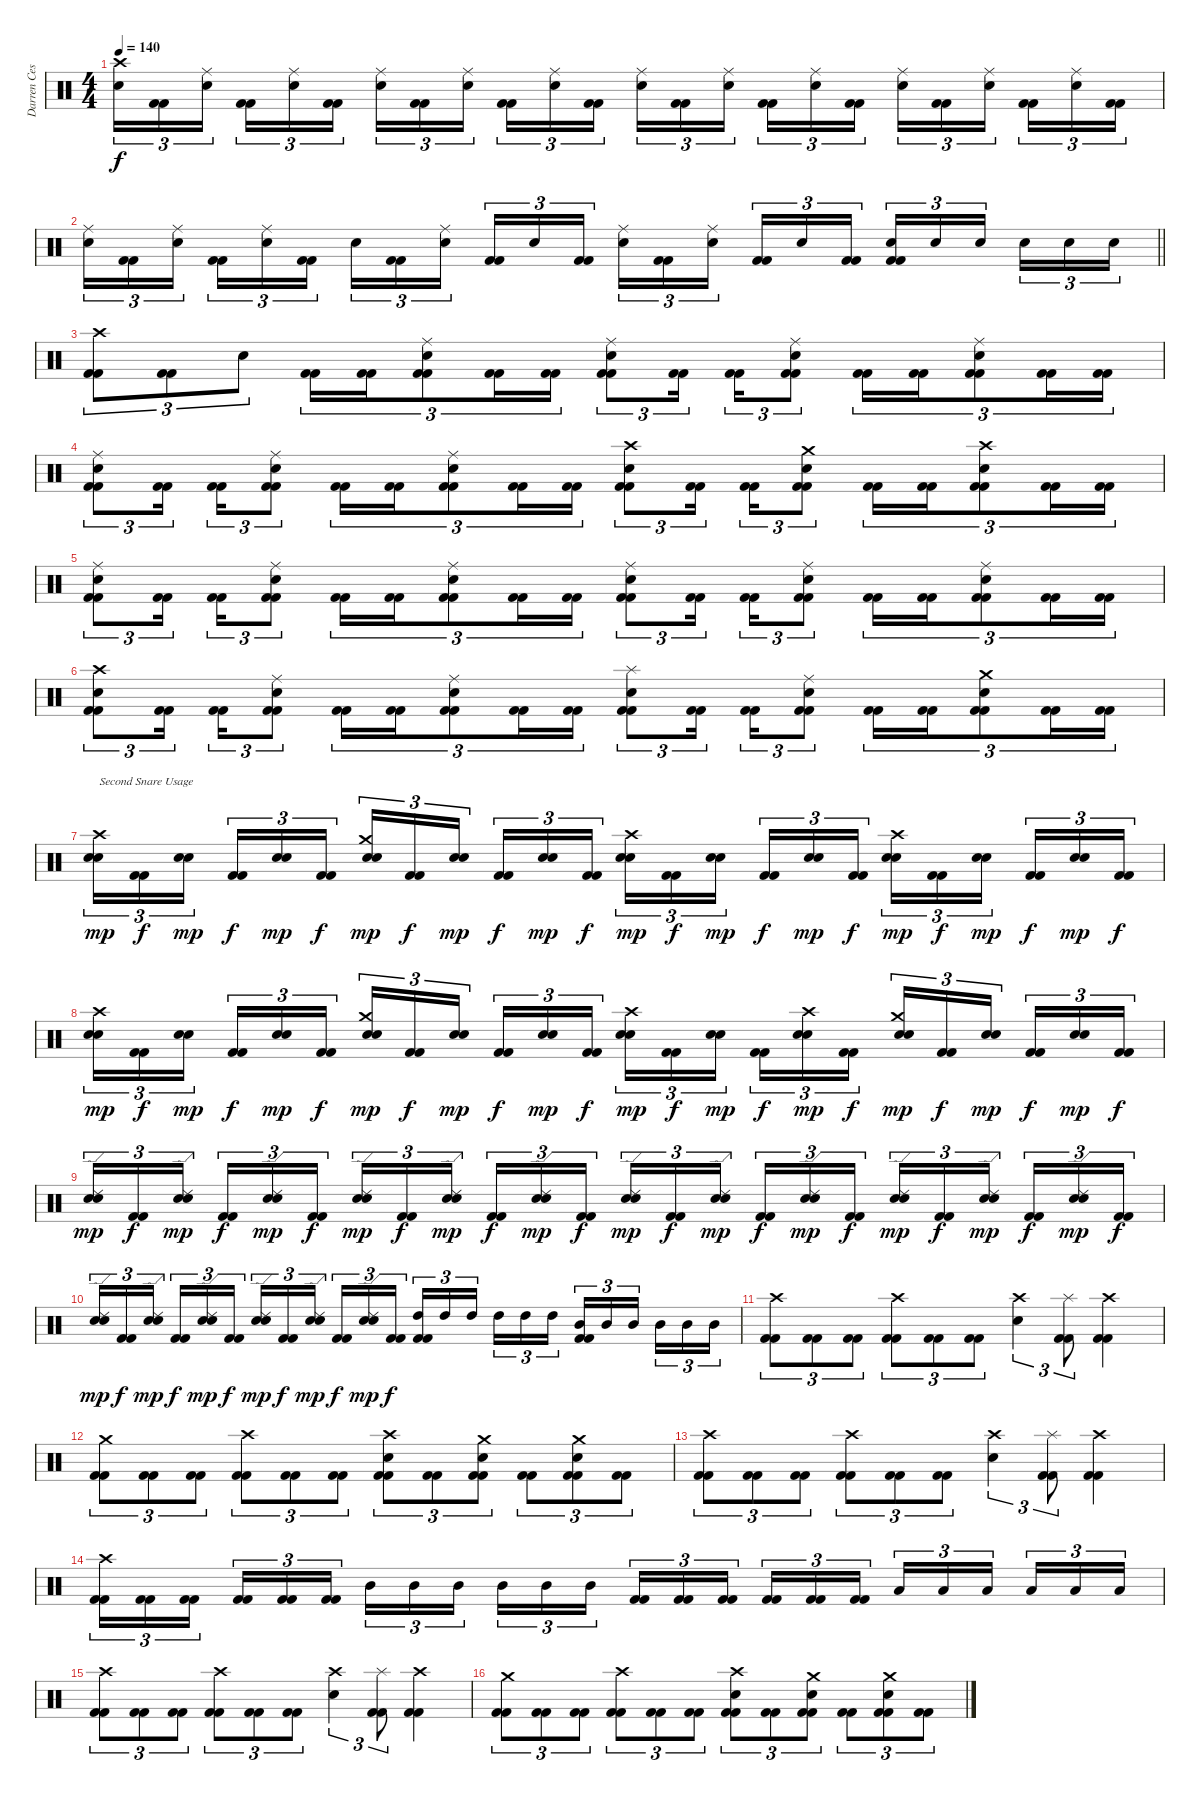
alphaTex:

\track ("Darren Cesca" "Darren Ces") {instrument percussion}
\staff {score}
\articulation defaults
\ts (4 4)
\tempo 140
\clef neutral
\ks c
("Crash high (hit)" "Electric Snare (hit)").16{tu (3 2) dy f} ("Kick (hit) 2" "Kick (hit) 2").16{tu (3 2)} ("Ride (middle)" "Electric Snare (hit)").16{tu (3 2) beam splitsecondary} ("Kick (hit) 2" "Kick (hit) 2").16{tu (3 2)} ("Ride (middle)" "Electric Snare (hit)").16{tu (3 2)} ("Kick (hit) 2" "Kick (hit) 2").16{tu (3 2)} ("Ride (middle)" "Electric Snare (hit)").16{tu (3 2)} ("Kick (hit) 2" "Kick (hit) 2").16{tu (3 2)} ("Ride (middle)" "Electric Snare (hit)").16{tu (3 2) beam splitsecondary} ("Kick (hit) 2" "Kick (hit) 2").16{tu (3 2)} ("Ride (middle)" "Electric Snare (hit)").16{tu (3 2)} ("Kick (hit) 2" "Kick (hit) 2").16{tu (3 2)} ("Ride (middle)" "Electric Snare (hit)").16{tu (3 2)} ("Kick (hit) 2" "Kick (hit) 2").16{tu (3 2)} ("Ride (middle)" "Electric Snare (hit)").16{tu (3 2) beam splitsecondary} ("Kick (hit) 2" "Kick (hit) 2").16{tu (3 2)} ("Ride (middle)" "Electric Snare (hit)").16{tu (3 2)} ("Kick (hit) 2" "Kick (hit) 2").16{tu (3 2)} ("Ride (middle)" "Electric Snare (hit)").16{tu (3 2)} ("Kick (hit) 2" "Kick (hit) 2").16{tu (3 2)} ("Ride (middle)" "Electric Snare (hit)").16{tu (3 2) beam splitsecondary} ("Kick (hit) 2" "Kick (hit) 2").16{tu (3 2)} ("Ride (middle)" "Electric Snare (hit)").16{tu (3 2)} ("Kick (hit) 2" "Kick (hit) 2").16{tu (3 2)} |
\barLineRight lightlight
("Ride (middle)" "Electric Snare (hit)").16{tu (3 2)} ("Kick (hit) 2" "Kick (hit) 2").16{tu (3 2)} ("Ride (middle)" "Electric Snare (hit)").16{tu (3 2) beam splitsecondary} ("Kick (hit) 2" "Kick (hit) 2").16{tu (3 2)} ("Ride (middle)" "Electric Snare (hit)").16{tu (3 2)} ("Kick (hit) 2" "Kick (hit) 2").16{tu (3 2)} "Electric Snare (hit)".16{tu (3 2)} ("Kick (hit) 2" "Kick (hit) 2").16{tu (3 2)} ("Ride (middle)" "Electric Snare (hit)").16{tu (3 2) beam splitsecondary} ("Kick (hit) 2" "Kick (hit) 2").16{tu (3 2)} "Electric Snare (hit)".16{tu (3 2)} ("Kick (hit) 2" "Kick (hit) 2").16{tu (3 2)} ("Ride (middle)" "Electric Snare (hit)").16{tu (3 2)} ("Kick (hit) 2" "Kick (hit) 2").16{tu (3 2)} ("Ride (middle)" "Electric Snare (hit)").16{tu (3 2) beam splitsecondary} ("Kick (hit) 2" "Kick (hit) 2").16{tu (3 2)} "Electric Snare (hit)".16{tu (3 2)} ("Kick (hit) 2" "Kick (hit) 2").16{tu (3 2)} ("Electric Snare (hit)" "Kick (hit) 2" "Kick (hit) 2").16{tu (3 2)} "Electric Snare (hit)".16{tu (3 2)} "Electric Snare (hit)".16{tu (3 2) beam splitsecondary} "Electric Snare (hit)".16{tu (3 2)} "Electric Snare (hit)".16{tu (3 2)} "Electric Snare (hit)".16{tu (3 2)} |
("Crash high (hit)" "Kick (hit) 2" "Kick (hit) 2").8{tu (3 2)} ("Kick (hit) 2" "Kick (hit) 2").8{tu (3 2)} "Electric Snare (hit)".8{tu (3 2)} ("Kick (hit) 2" "Kick (hit) 2").16{tu (3 2)} ("Kick (hit) 2" "Kick (hit) 2").16{tu (3 2)} ("Ride (middle)" "Electric Snare (hit)" "Kick (hit) 2" "Kick (hit) 2").8{tu (3 2)} ("Kick (hit) 2" "Kick (hit) 2").16{tu (3 2)} ("Kick (hit) 2" "Kick (hit) 2").16{tu (3 2)} ("Ride (middle)" "Electric Snare (hit)" "Kick (hit) 2" "Kick (hit) 2").8{tu (3 2)} ("Kick (hit) 2" "Kick (hit) 2").16{tu (3 2) beam splitsecondary} ("Kick (hit) 2" "Kick (hit) 2").16{tu (3 2)} ("Ride (middle)" "Electric Snare (hit)" "Kick (hit) 2" "Kick (hit) 2").8{tu (3 2)} ("Kick (hit) 2" "Kick (hit) 2").16{tu (3 2)} ("Kick (hit) 2" "Kick (hit) 2").16{tu (3 2)} ("Ride (middle)" "Electric Snare (hit)" "Kick (hit) 2" "Kick (hit) 2").8{tu (3 2)} ("Kick (hit) 2" "Kick (hit) 2").16{tu (3 2)} ("Kick (hit) 2" "Kick (hit) 2").16{tu (3 2)} |
("Ride (middle)" "Electric Snare (hit)" "Kick (hit) 2" "Kick (hit) 2").8{tu (3 2)} ("Kick (hit) 2" "Kick (hit) 2").16{tu (3 2) beam splitsecondary} ("Kick (hit) 2" "Kick (hit) 2").16{tu (3 2)} ("Ride (middle)" "Electric Snare (hit)" "Kick (hit) 2" "Kick (hit) 2").8{tu (3 2)} ("Kick (hit) 2" "Kick (hit) 2").16{tu (3 2)} ("Kick (hit) 2" "Kick (hit) 2").16{tu (3 2)} ("Ride (middle)" "Electric Snare (hit)" "Kick (hit) 2" "Kick (hit) 2").8{tu (3 2)} ("Kick (hit) 2" "Kick (hit) 2").16{tu (3 2)} ("Kick (hit) 2" "Kick (hit) 2").16{tu (3 2)} ("Crash high (hit)" "Electric Snare (hit)" "Kick (hit) 2" "Kick (hit) 2").8{tu (3 2)} ("Kick (hit) 2" "Kick (hit) 2").16{tu (3 2) beam splitsecondary} ("Kick (hit) 2" "Kick (hit) 2").16{tu (3 2)} ("Crash medium (hit)" "Electric Snare (hit)" "Kick (hit) 2" "Kick (hit) 2").8{tu (3 2)} ("Kick (hit) 2" "Kick (hit) 2").16{tu (3 2)} ("Kick (hit) 2" "Kick (hit) 2").16{tu (3 2)} ("Crash high (hit)" "Electric Snare (hit)" "Kick (hit) 2" "Kick (hit) 2").8{tu (3 2)} ("Kick (hit) 2" "Kick (hit) 2").16{tu (3 2)} ("Kick (hit) 2" "Kick (hit) 2").16{tu (3 2)} |
("Ride (middle)" "Electric Snare (hit)" "Kick (hit) 2" "Kick (hit) 2").8{tu (3 2)} ("Kick (hit) 2" "Kick (hit) 2").16{tu (3 2) beam splitsecondary} ("Kick (hit) 2" "Kick (hit) 2").16{tu (3 2)} ("Ride (middle)" "Electric Snare (hit)" "Kick (hit) 2" "Kick (hit) 2").8{tu (3 2)} ("Kick (hit) 2" "Kick (hit) 2").16{tu (3 2)} ("Kick (hit) 2" "Kick (hit) 2").16{tu (3 2)} ("Ride (middle)" "Electric Snare (hit)" "Kick (hit) 2" "Kick (hit) 2").8{tu (3 2)} ("Kick (hit) 2" "Kick (hit) 2").16{tu (3 2)} ("Kick (hit) 2" "Kick (hit) 2").16{tu (3 2)} ("Ride (middle)" "Electric Snare (hit)" "Kick (hit) 2" "Kick (hit) 2").8{tu (3 2)} ("Kick (hit) 2" "Kick (hit) 2").16{tu (3 2) beam splitsecondary} ("Kick (hit) 2" "Kick (hit) 2").16{tu (3 2)} ("Ride (middle)" "Electric Snare (hit)" "Kick (hit) 2" "Kick (hit) 2").8{tu (3 2)} ("Kick (hit) 2" "Kick (hit) 2").16{tu (3 2)} ("Kick (hit) 2" "Kick (hit) 2").16{tu (3 2)} ("Ride (middle)" "Electric Snare (hit)" "Kick (hit) 2" "Kick (hit) 2").8{tu (3 2)} ("Kick (hit) 2" "Kick (hit) 2").16{tu (3 2)} ("Kick (hit) 2" "Kick (hit) 2").16{tu (3 2)} |
("Crash high (hit)" "Electric Snare (hit)" "Kick (hit) 2" "Kick (hit) 2").8{tu (3 2)} ("Kick (hit) 2" "Kick (hit) 2").16{tu (3 2) beam splitsecondary} ("Kick (hit) 2" "Kick (hit) 2").16{tu (3 2)} ("Ride (middle)" "Electric Snare (hit)" "Kick (hit) 2" "Kick (hit) 2").8{tu (3 2)} ("Kick (hit) 2" "Kick (hit) 2").16{tu (3 2)} ("Kick (hit) 2" "Kick (hit) 2").16{tu (3 2)} ("Ride (middle)" "Electric Snare (hit)" "Kick (hit) 2" "Kick (hit) 2").8{tu (3 2)} ("Kick (hit) 2" "Kick (hit) 2").16{tu (3 2)} ("Kick (hit) 2" "Kick (hit) 2").16{tu (3 2)} ("Splash (hit)" "Electric Snare (hit)" "Kick (hit) 2" "Kick (hit) 2").8{tu (3 2)} ("Kick (hit) 2" "Kick (hit) 2").16{tu (3 2) beam splitsecondary} ("Kick (hit) 2" "Kick (hit) 2").16{tu (3 2)} ("Ride (middle)" "Electric Snare (hit)" "Kick (hit) 2" "Kick (hit) 2").8{tu (3 2)} ("Kick (hit) 2" "Kick (hit) 2").16{tu (3 2)} ("Kick (hit) 2" "Kick (hit) 2").16{tu (3 2)} ("Crash medium (hit)" "Electric Snare (hit)" "Kick (hit) 2" "Kick (hit) 2").8{tu (3 2)} ("Kick (hit) 2" "Kick (hit) 2").16{tu (3 2)} ("Kick (hit) 2" "Kick (hit) 2").16{tu (3 2)} |
("Crash high (hit)" "Electric Snare (hit)" "Snare (hit) 2").16{tu (3 2) txt "Second Snare Usage" dy mp} ("Kick (hit) 2" "Kick (hit) 2").16{tu (3 2) dy f} ("Electric Snare (hit)" "Snare (hit) 2").16{tu (3 2) dy mp beam splitsecondary} ("Kick (hit) 2" "Kick (hit) 2").16{tu (3 2) dy f} ("Electric Snare (hit)" "Snare (hit) 2").16{tu (3 2) dy mp} ("Kick (hit) 2" "Kick (hit) 2").16{tu (3 2) dy f} ("Crash medium (hit)" "Electric Snare (hit)" "Snare (hit) 2").16{tu (3 2) dy mp} ("Kick (hit) 2" "Kick (hit) 2").16{tu (3 2) dy f} ("Electric Snare (hit)" "Snare (hit) 2").16{tu (3 2) dy mp beam splitsecondary} ("Kick (hit) 2" "Kick (hit) 2").16{tu (3 2) dy f} ("Electric Snare (hit)" "Snare (hit) 2").16{tu (3 2) dy mp} ("Kick (hit) 2" "Kick (hit) 2").16{tu (3 2) dy f} ("Crash high (hit)" "Electric Snare (hit)" "Snare (hit) 2").16{tu (3 2) dy mp} ("Kick (hit) 2" "Kick (hit) 2").16{tu (3 2) dy f} ("Electric Snare (hit)" "Snare (hit) 2").16{tu (3 2) dy mp beam splitsecondary} ("Kick (hit) 2" "Kick (hit) 2").16{tu (3 2) dy f} ("Electric Snare (hit)" "Snare (hit) 2").16{tu (3 2) dy mp} ("Kick (hit) 2" "Kick (hit) 2").16{tu (3 2) dy f} ("Crash high (hit)" "Electric Snare (hit)" "Snare (hit) 2").16{tu (3 2) dy mp} ("Kick (hit) 2" "Kick (hit) 2").16{tu (3 2) dy f} ("Electric Snare (hit)" "Snare (hit) 2").16{tu (3 2) dy mp beam splitsecondary} ("Kick (hit) 2" "Kick (hit) 2").16{tu (3 2) dy f} ("Electric Snare (hit)" "Snare (hit) 2").16{tu (3 2) dy mp} ("Kick (hit) 2" "Kick (hit) 2").16{tu (3 2) dy f} |
("Crash high (hit)" "Electric Snare (hit)" "Snare (hit) 2").16{tu (3 2) dy mp} ("Kick (hit) 2" "Kick (hit) 2").16{tu (3 2) dy f} ("Electric Snare (hit)" "Snare (hit) 2").16{tu (3 2) dy mp beam splitsecondary} ("Kick (hit) 2" "Kick (hit) 2").16{tu (3 2) dy f} ("Electric Snare (hit)" "Snare (hit) 2").16{tu (3 2) dy mp} ("Kick (hit) 2" "Kick (hit) 2").16{tu (3 2) dy f} ("Crash medium (hit)" "Electric Snare (hit)" "Snare (hit) 2").16{tu (3 2) dy mp} ("Kick (hit) 2" "Kick (hit) 2").16{tu (3 2) dy f} ("Electric Snare (hit)" "Snare (hit) 2").16{tu (3 2) dy mp beam splitsecondary} ("Kick (hit) 2" "Kick (hit) 2").16{tu (3 2) dy f} ("Electric Snare (hit)" "Snare (hit) 2").16{tu (3 2) dy mp} ("Kick (hit) 2" "Kick (hit) 2").16{tu (3 2) dy f} ("Crash high (hit)" "Electric Snare (hit)" "Snare (hit) 2").16{tu (3 2) dy mp} ("Kick (hit) 2" "Kick (hit) 2").16{tu (3 2) dy f} ("Electric Snare (hit)" "Snare (hit) 2").16{tu (3 2) dy mp beam splitsecondary} ("Kick (hit) 2" "Kick (hit) 2").16{tu (3 2) dy f} ("Crash high (hit)" "Electric Snare (hit)" "Snare (hit) 2").16{tu (3 2) dy mp} ("Kick (hit) 2" "Kick (hit) 2").16{tu (3 2) dy f} ("Crash medium (hit)" "Electric Snare (hit)" "Snare (hit) 2").16{tu (3 2) dy mp} ("Kick (hit) 2" "Kick (hit) 2").16{tu (3 2) dy f} ("Electric Snare (hit)" "Snare (hit) 2").16{tu (3 2) dy mp beam splitsecondary} ("Kick (hit) 2" "Kick (hit) 2").16{tu (3 2) dy f} ("Electric Snare (hit)" "Snare (hit) 2").16{tu (3 2) dy mp} ("Kick (hit) 2" "Kick (hit) 2").16{tu (3 2) dy f} |
("Ride (edge) 2" "Electric Snare (hit)" "Snare (hit) 2").16{tu (3 2) dy mp} ("Kick (hit) 2" "Kick (hit) 2").16{tu (3 2) dy f} ("Ride (edge) 2" "Electric Snare (hit)" "Snare (hit) 2").16{tu (3 2) dy mp beam splitsecondary} ("Kick (hit) 2" "Kick (hit) 2").16{tu (3 2) dy f} ("Ride (edge) 2" "Electric Snare (hit)" "Snare (hit) 2").16{tu (3 2) dy mp} ("Kick (hit) 2" "Kick (hit) 2").16{tu (3 2) dy f} ("Ride (edge) 2" "Electric Snare (hit)" "Snare (hit) 2").16{tu (3 2) dy mp} ("Kick (hit) 2" "Kick (hit) 2").16{tu (3 2) dy f} ("Ride (edge) 2" "Electric Snare (hit)" "Snare (hit) 2").16{tu (3 2) dy mp beam splitsecondary} ("Kick (hit) 2" "Kick (hit) 2").16{tu (3 2) dy f} ("Ride (edge) 2" "Electric Snare (hit)" "Snare (hit) 2").16{tu (3 2) dy mp} ("Kick (hit) 2" "Kick (hit) 2").16{tu (3 2) dy f} ("Ride (edge) 2" "Electric Snare (hit)" "Snare (hit) 2").16{tu (3 2) dy mp} ("Kick (hit) 2" "Kick (hit) 2").16{tu (3 2) dy f} ("Ride (edge) 2" "Electric Snare (hit)" "Snare (hit) 2").16{tu (3 2) dy mp beam splitsecondary} ("Kick (hit) 2" "Kick (hit) 2").16{tu (3 2) dy f} ("Ride (edge) 2" "Electric Snare (hit)" "Snare (hit) 2").16{tu (3 2) dy mp} ("Kick (hit) 2" "Kick (hit) 2").16{tu (3 2) dy f} ("Ride (edge) 2" "Electric Snare (hit)" "Snare (hit) 2").16{tu (3 2) dy mp} ("Kick (hit) 2" "Kick (hit) 2").16{tu (3 2) dy f} ("Ride (edge) 2" "Electric Snare (hit)" "Snare (hit) 2").16{tu (3 2) dy mp beam splitsecondary} ("Kick (hit) 2" "Kick (hit) 2").16{tu (3 2) dy f} ("Ride (edge) 2" "Electric Snare (hit)" "Snare (hit) 2").16{tu (3 2) dy mp} ("Kick (hit) 2" "Kick (hit) 2").16{tu (3 2) dy f} |
("Ride (edge) 2" "Electric Snare (hit)" "Snare (hit) 2").16{tu (3 2) dy mp} ("Kick (hit) 2" "Kick (hit) 2").16{tu (3 2) dy f} ("Ride (edge) 2" "Electric Snare (hit)" "Snare (hit) 2").16{tu (3 2) dy mp beam splitsecondary} ("Kick (hit) 2" "Kick (hit) 2").16{tu (3 2) dy f} ("Ride (edge) 2" "Electric Snare (hit)" "Snare (hit) 2").16{tu (3 2) dy mp} ("Kick (hit) 2" "Kick (hit) 2").16{tu (3 2) dy f} ("Ride (edge) 2" "Electric Snare (hit)" "Snare (hit) 2").16{tu (3 2) dy mp} ("Kick (hit) 2" "Kick (hit) 2").16{tu (3 2) dy f} ("Ride (edge) 2" "Electric Snare (hit)" "Snare (hit) 2").16{tu (3 2) dy mp beam splitsecondary} ("Kick (hit) 2" "Kick (hit) 2").16{tu (3 2) dy f} ("Ride (edge) 2" "Electric Snare (hit)" "Snare (hit) 2").16{tu (3 2) dy mp} ("Kick (hit) 2" "Kick (hit) 2").16{tu (3 2) dy f} ("High Tom (hit)" "Kick (hit) 2" "Kick (hit) 2").16{tu (3 2)} "High Tom (hit)".16{tu (3 2)} "High Tom (hit)".16{tu (3 2) beam splitsecondary} "High Tom (hit)".16{tu (3 2)} "High Tom (hit)".16{tu (3 2)} "High Tom (hit)".16{tu (3 2)} ("Mid Tom (hit)" "Kick (hit) 2" "Kick (hit) 2").16{tu (3 2)} "Mid Tom (hit)".16{tu (3 2)} "Mid Tom (hit)".16{tu (3 2) beam splitsecondary} "Mid Tom (hit)".16{tu (3 2)} "Mid Tom (hit)".16{tu (3 2)} "Mid Tom (hit)".16{tu (3 2)} |
("Crash high (hit)" "Kick (hit) 2" "Kick (hit) 2").8{tu (3 2)} ("Kick (hit) 2" "Kick (hit) 2").8{tu (3 2)} ("Kick (hit) 2" "Kick (hit) 2").8{tu (3 2)} ("Crash high (hit)" "Kick (hit) 2" "Kick (hit) 2").8{tu (3 2)} ("Kick (hit) 2" "Kick (hit) 2").8{tu (3 2)} ("Kick (hit) 2" "Kick (hit) 2").8{tu (3 2)} ("Crash high (hit)" "Electric Snare (hit)").4{tu (3 2)} ("Splash (hit)" "Kick (hit) 2" "Kick (hit) 2").8{tu (3 2)} ("Crash high (hit)" "Kick (hit) 2" "Kick (hit) 2").4 |
("Crash medium (hit)" "Kick (hit) 2" "Kick (hit) 2").8{tu (3 2)} ("Kick (hit) 2" "Kick (hit) 2").8{tu (3 2)} ("Kick (hit) 2" "Kick (hit) 2").8{tu (3 2)} ("Crash high (hit)" "Kick (hit) 2" "Kick (hit) 2").8{tu (3 2)} ("Kick (hit) 2" "Kick (hit) 2").8{tu (3 2)} ("Kick (hit) 2" "Kick (hit) 2").8{tu (3 2)} ("Crash high (hit)" "Electric Snare (hit)" "Kick (hit) 2" "Kick (hit) 2").8{tu (3 2)} ("Kick (hit) 2" "Kick (hit) 2").8{tu (3 2)} ("Crash medium (hit)" "Electric Snare (hit)" "Kick (hit) 2" "Kick (hit) 2").8{tu (3 2)} ("Kick (hit) 2" "Kick (hit) 2").8{tu (3 2)} ("Crash medium (hit)" "Electric Snare (hit)" "Kick (hit) 2" "Kick (hit) 2").8{tu (3 2)} ("Kick (hit) 2" "Kick (hit) 2").8{tu (3 2)} |
("Crash high (hit)" "Kick (hit) 2" "Kick (hit) 2").8{tu (3 2)} ("Kick (hit) 2" "Kick (hit) 2").8{tu (3 2)} ("Kick (hit) 2" "Kick (hit) 2").8{tu (3 2)} ("Crash high (hit)" "Kick (hit) 2" "Kick (hit) 2").8{tu (3 2)} ("Kick (hit) 2" "Kick (hit) 2").8{tu (3 2)} ("Kick (hit) 2" "Kick (hit) 2").8{tu (3 2)} ("Crash high (hit)" "Electric Snare (hit)").4{tu (3 2)} ("Splash (hit)" "Kick (hit) 2" "Kick (hit) 2").8{tu (3 2)} ("Crash high (hit)" "Kick (hit) 2" "Kick (hit) 2").4 |
("Crash high (hit)" "Kick (hit) 2" "Kick (hit) 2").16{tu (3 2)} ("Kick (hit) 2" "Kick (hit) 2").16{tu (3 2)} ("Kick (hit) 2" "Kick (hit) 2").16{tu (3 2) beam splitsecondary} ("Kick (hit) 2" "Kick (hit) 2").16{tu (3 2)} ("Kick (hit) 2" "Kick (hit) 2").16{tu (3 2)} ("Kick (hit) 2" "Kick (hit) 2").16{tu (3 2)} "Mid Tom (hit)".16{tu (3 2)} "Mid Tom (hit)".16{tu (3 2)} "Mid Tom (hit)".16{tu (3 2) beam splitsecondary} "Mid Tom (hit)".16{tu (3 2)} "Mid Tom (hit)".16{tu (3 2)} "Mid Tom (hit)".16{tu (3 2)} ("Kick (hit) 2" "Kick (hit) 2").16{tu (3 2)} ("Kick (hit) 2" "Kick (hit) 2").16{tu (3 2)} ("Kick (hit) 2" "Kick (hit) 2").16{tu (3 2) beam splitsecondary} ("Kick (hit) 2" "Kick (hit) 2").16{tu (3 2)} ("Kick (hit) 2" "Kick (hit) 2").16{tu (3 2)} ("Kick (hit) 2" "Kick (hit) 2").16{tu (3 2)} "Low Tom (hit)".16{tu (3 2)} "Low Tom (hit)".16{tu (3 2)} "Low Tom (hit)".16{tu (3 2) beam splitsecondary} "Low Tom (hit)".16{tu (3 2)} "Low Tom (hit)".16{tu (3 2)} "Low Tom (hit)".16{tu (3 2)} |
("Crash high (hit)" "Kick (hit) 2" "Kick (hit) 2").8{tu (3 2)} ("Kick (hit) 2" "Kick (hit) 2").8{tu (3 2)} ("Kick (hit) 2" "Kick (hit) 2").8{tu (3 2)} ("Crash high (hit)" "Kick (hit) 2" "Kick (hit) 2").8{tu (3 2)} ("Kick (hit) 2" "Kick (hit) 2").8{tu (3 2)} ("Kick (hit) 2" "Kick (hit) 2").8{tu (3 2)} ("Crash high (hit)" "Electric Snare (hit)").4{tu (3 2)} ("Splash (hit)" "Kick (hit) 2" "Kick (hit) 2").8{tu (3 2)} ("Crash high (hit)" "Kick (hit) 2" "Kick (hit) 2").4 |
("Crash medium (hit)" "Kick (hit) 2" "Kick (hit) 2").8{tu (3 2)} ("Kick (hit) 2" "Kick (hit) 2").8{tu (3 2)} ("Kick (hit) 2" "Kick (hit) 2").8{tu (3 2)} ("Crash high (hit)" "Kick (hit) 2" "Kick (hit) 2").8{tu (3 2)} ("Kick (hit) 2" "Kick (hit) 2").8{tu (3 2)} ("Kick (hit) 2" "Kick (hit) 2").8{tu (3 2)} ("Crash high (hit)" "Electric Snare (hit)" "Kick (hit) 2" "Kick (hit) 2").8{tu (3 2)} ("Kick (hit) 2" "Kick (hit) 2").8{tu (3 2)} ("Crash medium (hit)" "Electric Snare (hit)" "Kick (hit) 2" "Kick (hit) 2").8{tu (3 2)} ("Kick (hit) 2" "Kick (hit) 2").8{tu (3 2)} ("Crash medium (hit)" "Electric Snare (hit)" "Kick (hit) 2" "Kick (hit) 2").8{tu (3 2)} ("Kick (hit) 2" "Kick (hit) 2").8{tu (3 2)}
